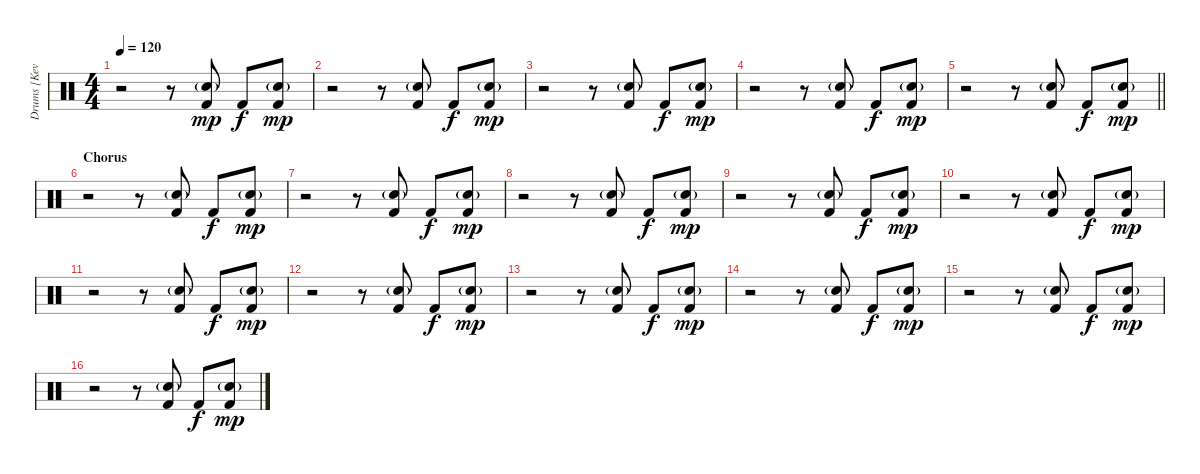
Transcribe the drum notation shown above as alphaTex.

\track ("Drums [Kevin Haskins]" "Drums [Kev") {instrument percussion}
\staff {score}
\articulation defaults
\ts (4 4)
\tempo 120
\clef neutral
\ks c
r.2{dy mp} r.8 ("Snare (hit) 2"{g} "Kick (hit) 2").8 "Kick (hit) 2".8{dy f} ("Snare (hit) 2"{g} "Kick (hit) 2").8{dy mp} |
r.2 r.8 ("Snare (hit) 2"{g} "Kick (hit) 2").8 "Kick (hit) 2".8{dy f} ("Snare (hit) 2"{g} "Kick (hit) 2").8{dy mp} |
r.2 r.8 ("Snare (hit) 2"{g} "Kick (hit) 2").8 "Kick (hit) 2".8{dy f} ("Snare (hit) 2"{g} "Kick (hit) 2").8{dy mp} |
r.2 r.8 ("Snare (hit) 2"{g} "Kick (hit) 2").8 "Kick (hit) 2".8{dy f} ("Snare (hit) 2"{g} "Kick (hit) 2").8{dy mp} |
\barLineRight lightlight
r.2 r.8 ("Snare (hit) 2"{g} "Kick (hit) 2").8 "Kick (hit) 2".8{dy f} ("Snare (hit) 2"{g} "Kick (hit) 2").8{dy mp} |
\section ("" "Chorus")
r.2 r.8 ("Snare (hit) 2"{g} "Kick (hit) 2").8 "Kick (hit) 2".8{dy f} ("Snare (hit) 2"{g} "Kick (hit) 2").8{dy mp} |
r.2 r.8 ("Snare (hit) 2"{g} "Kick (hit) 2").8 "Kick (hit) 2".8{dy f} ("Snare (hit) 2"{g} "Kick (hit) 2").8{dy mp} |
r.2 r.8 ("Snare (hit) 2"{g} "Kick (hit) 2").8 "Kick (hit) 2".8{dy f} ("Snare (hit) 2"{g} "Kick (hit) 2").8{dy mp} |
r.2 r.8 ("Snare (hit) 2"{g} "Kick (hit) 2").8 "Kick (hit) 2".8{dy f} ("Snare (hit) 2"{g} "Kick (hit) 2").8{dy mp} |
r.2 r.8 ("Snare (hit) 2"{g} "Kick (hit) 2").8 "Kick (hit) 2".8{dy f} ("Snare (hit) 2"{g} "Kick (hit) 2").8{dy mp} |
r.2 r.8 ("Snare (hit) 2"{g} "Kick (hit) 2").8 "Kick (hit) 2".8{dy f} ("Snare (hit) 2"{g} "Kick (hit) 2").8{dy mp} |
r.2 r.8 ("Snare (hit) 2"{g} "Kick (hit) 2").8 "Kick (hit) 2".8{dy f} ("Snare (hit) 2"{g} "Kick (hit) 2").8{dy mp} |
r.2 r.8 ("Snare (hit) 2"{g} "Kick (hit) 2").8 "Kick (hit) 2".8{dy f} ("Snare (hit) 2"{g} "Kick (hit) 2").8{dy mp} |
r.2 r.8 ("Snare (hit) 2"{g} "Kick (hit) 2").8 "Kick (hit) 2".8{dy f} ("Snare (hit) 2"{g} "Kick (hit) 2").8{dy mp} |
r.2 r.8 ("Snare (hit) 2"{g} "Kick (hit) 2").8 "Kick (hit) 2".8{dy f} ("Snare (hit) 2"{g} "Kick (hit) 2").8{dy mp} |
r.2 r.8 ("Snare (hit) 2"{g} "Kick (hit) 2").8 "Kick (hit) 2".8{dy f} ("Snare (hit) 2"{g} "Kick (hit) 2").8{dy mp}
